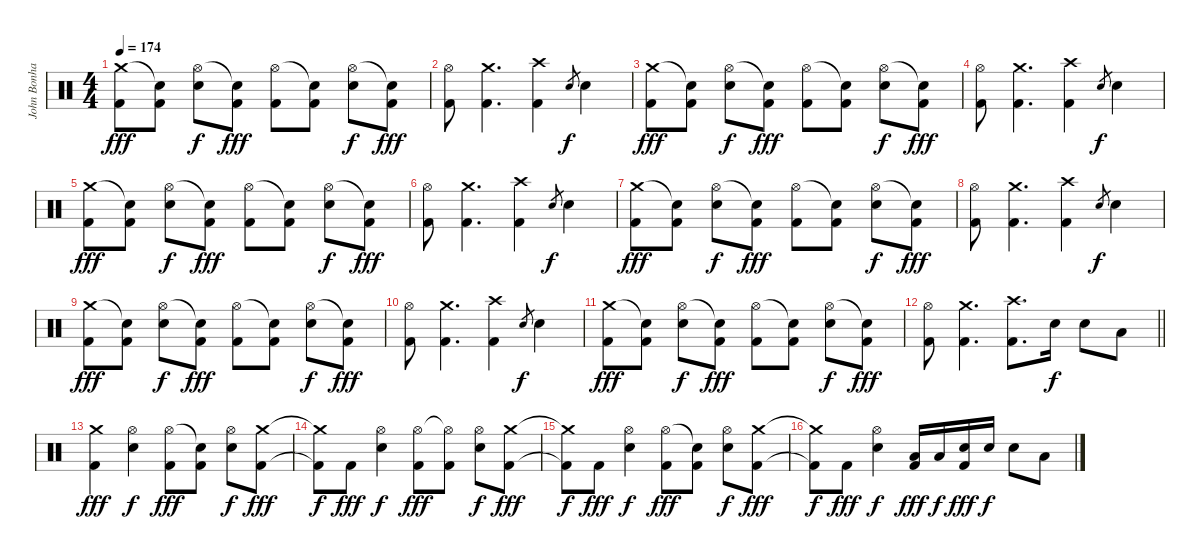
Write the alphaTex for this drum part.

\track ("John Bonham - Drums" "John Bonha") {instrument percussion}
\staff {score}
\articulation defaults
\ts (4 4)
\tempo 174
\clef neutral
\ks c
("Crash medium (hit)" "Kick (hit) 2").8{dy fff} ("Snare (hit)"{t} "Kick (hit) 2").8 ("Hi-Hat (open)" "Snare (hit) 2").8{dy f} ("Snare (hit)"{t} "Kick (hit) 2").8{dy fff} ("Hi-Hat (open)" "Kick (hit) 2").8 ("Snare (hit)"{t} "Kick (hit) 2").8 ("Hi-Hat (open)" "Snare (hit) 2").8{dy f} ("Snare (hit)"{t} "Kick (hit) 2").8{dy fff} |
("Hi-Hat (open)" "Kick (hit) 2").8 ("Crash medium (hit)" "Kick (hit) 2").4{d} ("Crash high (hit)" "Kick (hit) 2").4 "Snare (hit) 2".8{gr dy f} "Snare (hit) 2".4 |
("Crash medium (hit)" "Kick (hit) 2").8{dy fff} ("Snare (hit)"{t} "Kick (hit) 2").8 ("Hi-Hat (open)" "Snare (hit) 2").8{dy f} ("Snare (hit)"{t} "Kick (hit) 2").8{dy fff} ("Hi-Hat (open)" "Kick (hit) 2").8 ("Snare (hit)"{t} "Kick (hit) 2").8 ("Hi-Hat (open)" "Snare (hit) 2").8{dy f} ("Snare (hit)"{t} "Kick (hit) 2").8{dy fff} |
("Hi-Hat (open)" "Kick (hit) 2").8 ("Crash medium (hit)" "Kick (hit) 2").4{d} ("Crash high (hit)" "Kick (hit) 2").4 "Snare (hit) 2".8{gr dy f} "Snare (hit) 2".4 |
("Crash medium (hit)" "Kick (hit) 2").8{dy fff} ("Snare (hit)"{t} "Kick (hit) 2").8 ("Hi-Hat (open)" "Snare (hit) 2").8{dy f} ("Snare (hit)"{t} "Kick (hit) 2").8{dy fff} ("Hi-Hat (open)" "Kick (hit) 2").8 ("Snare (hit)"{t} "Kick (hit) 2").8 ("Hi-Hat (open)" "Snare (hit) 2").8{dy f} ("Snare (hit)"{t} "Kick (hit) 2").8{dy fff} |
("Hi-Hat (open)" "Kick (hit) 2").8 ("Crash medium (hit)" "Kick (hit) 2").4{d} ("Crash high (hit)" "Kick (hit) 2").4 "Snare (hit) 2".8{gr dy f} "Snare (hit) 2".4 |
("Crash medium (hit)" "Kick (hit) 2").8{dy fff} ("Snare (hit)"{t} "Kick (hit) 2").8 ("Hi-Hat (open)" "Snare (hit) 2").8{dy f} ("Snare (hit)"{t} "Kick (hit) 2").8{dy fff} ("Hi-Hat (open)" "Kick (hit) 2").8 ("Snare (hit)"{t} "Kick (hit) 2").8 ("Hi-Hat (open)" "Snare (hit) 2").8{dy f} ("Snare (hit)"{t} "Kick (hit) 2").8{dy fff} |
("Hi-Hat (open)" "Kick (hit) 2").8 ("Crash medium (hit)" "Kick (hit) 2").4{d} ("Crash high (hit)" "Kick (hit) 2").4 "Snare (hit) 2".8{gr dy f} "Snare (hit) 2".4 |
("Crash medium (hit)" "Kick (hit) 2").8{dy fff} ("Snare (hit)"{t} "Kick (hit) 2").8 ("Hi-Hat (open)" "Snare (hit) 2").8{dy f} ("Snare (hit)"{t} "Kick (hit) 2").8{dy fff} ("Hi-Hat (open)" "Kick (hit) 2").8 ("Snare (hit)"{t} "Kick (hit) 2").8 ("Hi-Hat (open)" "Snare (hit) 2").8{dy f} ("Snare (hit)"{t} "Kick (hit) 2").8{dy fff} |
("Hi-Hat (open)" "Kick (hit) 2").8 ("Crash medium (hit)" "Kick (hit) 2").4{d} ("Crash high (hit)" "Kick (hit) 2").4 "Snare (hit) 2".8{gr dy f} "Snare (hit) 2".4 |
("Crash medium (hit)" "Kick (hit) 2").8{dy fff} ("Snare (hit)"{t} "Kick (hit) 2").8 ("Hi-Hat (open)" "Snare (hit) 2").8{dy f} ("Snare (hit)"{t} "Kick (hit) 2").8{dy fff} ("Hi-Hat (open)" "Kick (hit) 2").8 ("Snare (hit)"{t} "Kick (hit) 2").8 ("Hi-Hat (open)" "Snare (hit) 2").8{dy f} ("Snare (hit)"{t} "Kick (hit) 2").8{dy fff} |
\barLineRight lightlight
("Hi-Hat (open)" "Kick (hit) 2").8 ("Crash medium (hit)" "Kick (hit) 2").4{d} ("Crash high (hit)" "Kick (hit) 2").8{d} "Snare (hit) 2".16{dy f} "Snare (hit) 2".8 "Low Tom (hit)".8 |
("Crash medium (hit)" "Kick (hit) 2").4{dy fff} ("Hi-Hat (open)" "Snare (hit) 2").4{dy f} ("Hi-Hat (open)" "Kick (hit) 2").8{dy fff} ("Snare (hit)"{t} "Kick (hit) 2").8 ("Hi-Hat (open)" "Snare (hit) 2").8{dy f} ("Crash medium (hit)" "Kick (hit) 2").8{dy fff} |
("Crash medium (hit)"{t} "Kick (hit) 2"{t}).8{dy f} "Kick (hit) 2".8{dy fff} ("Hi-Hat (open)" "Snare (hit) 2").4{dy f} ("Hi-Hat (open)" "Kick (hit) 2").8{dy fff} ("Hi-Hat (open)"{t} "Kick (hit) 2").8 ("Hi-Hat (open)" "Snare (hit) 2").8{dy f} ("Crash medium (hit)" "Kick (hit) 2").8{dy fff} |
("Crash medium (hit)"{t} "Kick (hit) 2"{t}).8{dy f} "Kick (hit) 2".8{dy fff} ("Hi-Hat (open)" "Snare (hit) 2").4{dy f} ("Hi-Hat (open)" "Kick (hit) 2").8{dy fff} ("Snare (hit)"{t} "Kick (hit) 2").8 ("Hi-Hat (open)" "Snare (hit) 2").8{dy f} ("Crash medium (hit)" "Kick (hit) 2").8{dy fff} |
("Crash medium (hit)"{t} "Kick (hit) 2"{t}).8{dy f} "Kick (hit) 2".8{dy fff} ("Hi-Hat (open)" "Snare (hit) 2").4{dy f} ("Low Tom (hit)" "Kick (hit) 2").16{dy fff} "Low Tom (hit)".16{dy f} ("Snare (hit) 2" "Kick (hit) 2").16{dy fff} "Snare (hit) 2".16{dy f} "Snare (hit) 2".8 "Low Tom (hit)".8
